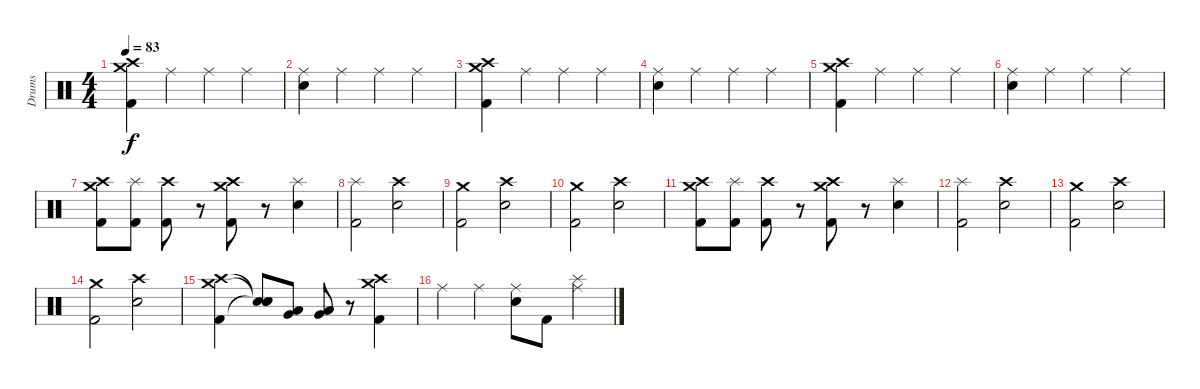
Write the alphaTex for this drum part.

\track ("Drums" "Drums") {instrument percussion}
\staff {score}
\articulation defaults
\ts (4 4)
\tempo 83
\clef neutral
\ks c
("Crash medium (hit)" "Crash high (hit)" "Kick (hit) 2").4{dy f} "Ride (middle)".4 "Ride (middle)".4 "Ride (middle)".4 |
("Ride (middle)" "Snare (hit) 2").4 "Ride (middle)".4 "Ride (middle)".4 "Ride (middle)".4 |
("Crash medium (hit)" "Crash high (hit)" "Kick (hit) 2").4 "Ride (middle)".4 "Ride (middle)".4 "Ride (middle)".4 |
("Ride (middle)" "Snare (hit) 2").4 "Ride (middle)".4 "Ride (middle)".4 "Ride (middle)".4 |
("Crash medium (hit)" "Crash high (hit)" "Kick (hit) 2").4 "Ride (middle)".4 "Ride (middle)".4 "Ride (middle)".4 |
("Ride (middle)" "Snare (hit) 2").4 "Ride (middle)".4 "Ride (middle)".4 "Ride (middle)".4 |
("Crash medium (hit)" "Crash high (hit)" "Kick (hit) 2").8 ("Splash (hit)" "Kick (hit) 2").8 ("Crash high (hit)" "Kick (hit) 2").8 r.8 ("Crash medium (hit)" "Crash high (hit)" "Kick (hit) 2").8 r.8 ("Splash (hit)" "Snare (hit) 2").4 |
("Splash (hit)" "Kick (hit) 2").2 ("Crash high (hit)" "Snare (hit) 2").2 |
("Crash medium (hit)" "Kick (hit) 2").2 ("Crash high (hit)" "Snare (hit) 2").2 |
("Crash medium (hit)" "Kick (hit) 2").2 ("Crash high (hit)" "Snare (hit) 2").2 |
("Crash medium (hit)" "Crash high (hit)" "Kick (hit) 2").8 ("Splash (hit)" "Kick (hit) 2").8 ("Crash high (hit)" "Kick (hit) 2").8 r.8 ("Crash medium (hit)" "Crash high (hit)" "Kick (hit) 2").8 r.8 ("Splash (hit)" "Snare (hit) 2").4 |
("Splash (hit)" "Kick (hit) 2").2 ("Crash high (hit)" "Snare (hit) 2").2 |
("Crash medium (hit)" "Kick (hit) 2").2 ("Crash high (hit)" "Snare (hit) 2").2 |
("Crash medium (hit)" "Kick (hit) 2").2 ("Crash high (hit)" "Snare (hit) 2").2 |
("Crash high (hit)" "Crash medium (hit)" "Kick (hit) 2").4 ("Snare (hit)"{t} "Snare (hit)"{t} "Snare (hit)"{t}).8 ("Low Tom (hit)" "Very Low Tom (hit)").8 ("Low Tom (hit)" "Very Low Tom (hit)").8 r.8 ("Crash high (hit)" "Crash medium (hit)" "Kick (hit) 2").4 |
"Ride (middle)".4 "Ride (middle)".4 ("Ride (middle)" "Snare (hit) 2").8 "Kick (hit) 2".8 ("Ride (middle)" "Splash (hit)").4
